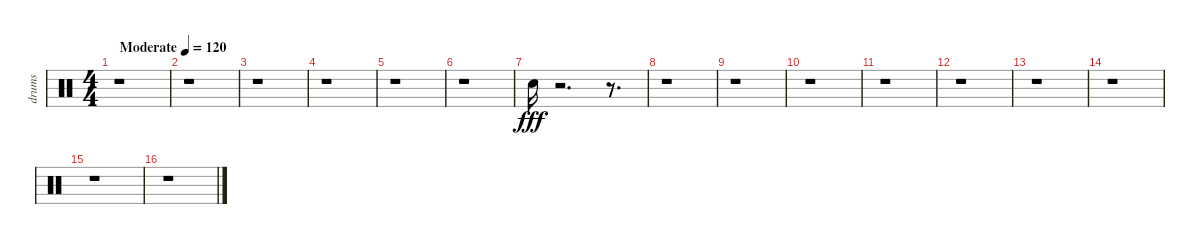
\track ("drums" "drums") {instrument percussion}
\staff {score}
\articulation defaults
\ts (4 4)
\tempo (120 "Moderate")
\clef neutral
\ks c
r.1{dy fff} |
r.1 |
r.1 |
r.1 |
r.1 |
r.1 |
"Snare (hit)".16 r.2{d} r.8{d} |
r.1 |
r.1 |
r.1 |
r.1 |
r.1 |
r.1 |
r.1 |
r.1 |
r.1
